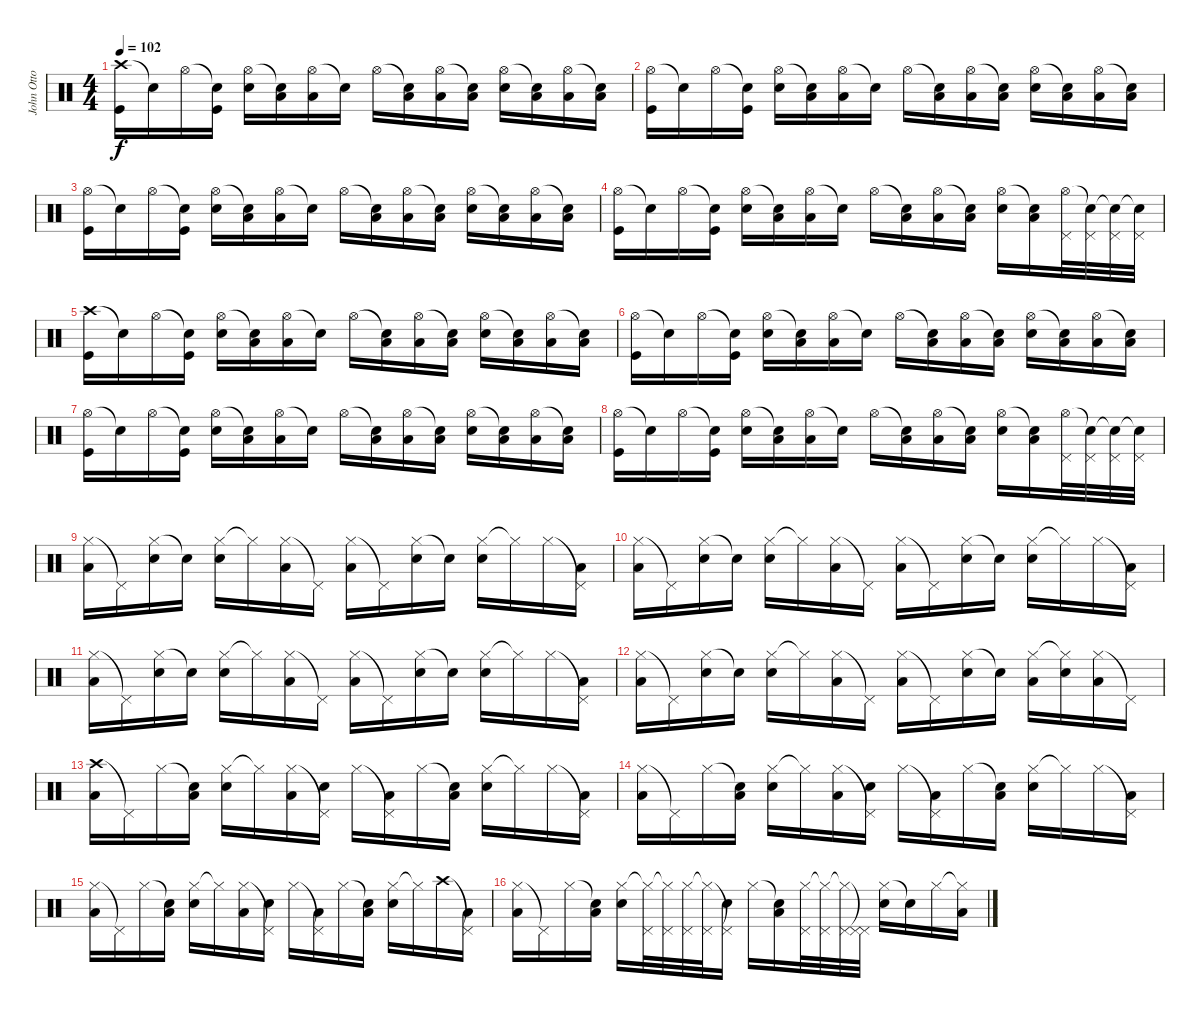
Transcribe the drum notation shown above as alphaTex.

\track ("John Otto (2nd Drums)" "John Otto ") {instrument percussion}
\staff {score}
\articulation defaults
\ts (4 4)
\tempo 102
\clef neutral
\ks c
("Crash high (hit)" "Kick (hit)").16{dy f} "Snare (hit)"{t}.16 "Hi-Hat (open)".16 ("Snare (hit)"{t} "Kick (hit)").16 ("Hi-Hat (open)" "Snare (hit) 2").16 ("Snare (hit)"{t} "Low Tom (hit)").16 ("Hi-Hat (open)" "Low Tom (hit)").16 "Snare (hit)"{t}.16 "Hi-Hat (open)".16 ("Snare (hit)"{t} "Low Tom (hit)").16 ("Hi-Hat (open)" "Low Tom (hit)").16 ("Snare (hit)"{t} "Low Tom (hit)").16 ("Hi-Hat (open)" "Snare (hit) 2").16 ("Snare (hit)"{t} "Low Tom (hit)").16 ("Hi-Hat (open)" "Low Tom (hit)").16 ("Snare (hit)"{t} "Low Tom (hit)").16 |
("Hi-Hat (open)" "Kick (hit)").16 "Snare (hit)"{t}.16 "Hi-Hat (open)".16 ("Snare (hit)"{t} "Kick (hit)").16 ("Hi-Hat (open)" "Snare (hit) 2").16 ("Snare (hit)"{t} "Low Tom (hit)").16 ("Hi-Hat (open)" "Low Tom (hit)").16 "Snare (hit)"{t}.16 "Hi-Hat (open)".16 ("Snare (hit)"{t} "Low Tom (hit)").16 ("Hi-Hat (open)" "Low Tom (hit)").16 ("Snare (hit)"{t} "Low Tom (hit)").16 ("Hi-Hat (open)" "Snare (hit) 2").16 ("Snare (hit)"{t} "Low Tom (hit)").16 ("Hi-Hat (open)" "Low Tom (hit)").16 ("Snare (hit)"{t} "Low Tom (hit)").16 |
("Hi-Hat (open)" "Kick (hit)").16 "Snare (hit)"{t}.16 "Hi-Hat (open)".16 ("Snare (hit)"{t} "Kick (hit)").16 ("Hi-Hat (open)" "Snare (hit) 2").16 ("Snare (hit)"{t} "Low Tom (hit)").16 ("Hi-Hat (open)" "Low Tom (hit)").16 "Snare (hit)"{t}.16 "Hi-Hat (open)".16 ("Snare (hit)"{t} "Low Tom (hit)").16 ("Hi-Hat (open)" "Low Tom (hit)").16 ("Snare (hit)"{t} "Low Tom (hit)").16 ("Hi-Hat (open)" "Snare (hit) 2").16 ("Snare (hit)"{t} "Low Tom (hit)").16 ("Hi-Hat (open)" "Low Tom (hit)").16 ("Snare (hit)"{t} "Low Tom (hit)").16 |
("Hi-Hat (open)" "Kick (hit)").16 "Snare (hit)"{t}.16 "Hi-Hat (open)".16 ("Snare (hit)"{t} "Kick (hit)").16 ("Hi-Hat (open)" "Snare (hit) 2").16 ("Snare (hit)"{t} "Low Tom (hit)").16 ("Hi-Hat (open)" "Low Tom (hit)").16 "Snare (hit)"{t}.16 "Hi-Hat (open)".16 ("Snare (hit)"{t} "Low Tom (hit)").16 ("Hi-Hat (open)" "Low Tom (hit)").16 ("Snare (hit)"{t} "Low Tom (hit)").16 ("Hi-Hat (open)" "Snare (hit) 2").16 ("Snare (hit)"{t} "Low Tom (hit)").16 ("Hi-Hat (open)" "Pedal Hi-Hat (hit)").32 ("Snare (hit)"{t} "Pedal Hi-Hat (hit)").32 ("Snare (hit)"{t} "Pedal Hi-Hat (hit)").32 ("Snare (hit)"{t} "Pedal Hi-Hat (hit)").32 |
("Crash high (hit)" "Kick (hit)").16 "Snare (hit)"{t}.16 "Hi-Hat (open)".16 ("Snare (hit)"{t} "Kick (hit)").16 ("Hi-Hat (open)" "Snare (hit) 2").16 ("Snare (hit)"{t} "Low Tom (hit)").16 ("Hi-Hat (open)" "Low Tom (hit)").16 "Snare (hit)"{t}.16 "Hi-Hat (open)".16 ("Snare (hit)"{t} "Low Tom (hit)").16 ("Hi-Hat (open)" "Low Tom (hit)").16 ("Snare (hit)"{t} "Low Tom (hit)").16 ("Hi-Hat (open)" "Snare (hit) 2").16 ("Snare (hit)"{t} "Low Tom (hit)").16 ("Hi-Hat (open)" "Low Tom (hit)").16 ("Snare (hit)"{t} "Low Tom (hit)").16 |
("Hi-Hat (open)" "Kick (hit)").16 "Snare (hit)"{t}.16 "Hi-Hat (open)".16 ("Snare (hit)"{t} "Kick (hit)").16 ("Hi-Hat (open)" "Snare (hit) 2").16 ("Snare (hit)"{t} "Low Tom (hit)").16 ("Hi-Hat (open)" "Low Tom (hit)").16 "Snare (hit)"{t}.16 "Hi-Hat (open)".16 ("Snare (hit)"{t} "Low Tom (hit)").16 ("Hi-Hat (open)" "Low Tom (hit)").16 ("Snare (hit)"{t} "Low Tom (hit)").16 ("Hi-Hat (open)" "Snare (hit) 2").16 ("Snare (hit)"{t} "Low Tom (hit)").16 ("Hi-Hat (open)" "Low Tom (hit)").16 ("Snare (hit)"{t} "Low Tom (hit)").16 |
("Hi-Hat (open)" "Kick (hit)").16 "Snare (hit)"{t}.16 "Hi-Hat (open)".16 ("Snare (hit)"{t} "Kick (hit)").16 ("Hi-Hat (open)" "Snare (hit) 2").16 ("Snare (hit)"{t} "Low Tom (hit)").16 ("Hi-Hat (open)" "Low Tom (hit)").16 "Snare (hit)"{t}.16 "Hi-Hat (open)".16 ("Snare (hit)"{t} "Low Tom (hit)").16 ("Hi-Hat (open)" "Low Tom (hit)").16 ("Snare (hit)"{t} "Low Tom (hit)").16 ("Hi-Hat (open)" "Snare (hit) 2").16 ("Snare (hit)"{t} "Low Tom (hit)").16 ("Hi-Hat (open)" "Low Tom (hit)").16 ("Snare (hit)"{t} "Low Tom (hit)").16 |
("Hi-Hat (open)" "Kick (hit)").16 "Snare (hit)"{t}.16 "Hi-Hat (open)".16 ("Snare (hit)"{t} "Kick (hit)").16 ("Hi-Hat (open)" "Snare (hit) 2").16 ("Snare (hit)"{t} "Low Tom (hit)").16 ("Hi-Hat (open)" "Low Tom (hit)").16 "Snare (hit)"{t}.16 "Hi-Hat (open)".16 ("Snare (hit)"{t} "Low Tom (hit)").16 ("Hi-Hat (open)" "Low Tom (hit)").16 ("Snare (hit)"{t} "Low Tom (hit)").16 ("Hi-Hat (open)" "Snare (hit) 2").16 ("Snare (hit)"{t} "Low Tom (hit)").16 ("Hi-Hat (open)" "Pedal Hi-Hat (hit)").32 ("Snare (hit)"{t} "Pedal Hi-Hat (hit)").32 ("Snare (hit)"{t} "Pedal Hi-Hat (hit)").32 ("Snare (hit)"{t} "Pedal Hi-Hat (hit)").32 |
("Hi-Hat (closed)" "Low Tom (hit)").16 "Pedal Hi-Hat (hit)"{t}.16 ("Hi-Hat (closed)" "Snare (hit) 2").16 "Snare (hit)"{t}.16 ("Hi-Hat (closed)" "Snare (hit) 2").16 "Hi-Hat (closed)"{t}.16 ("Hi-Hat (closed)" "Low Tom (hit)").16 "Pedal Hi-Hat (hit)"{t}.16 ("Hi-Hat (closed)" "Low Tom (hit)").16 "Pedal Hi-Hat (hit)"{t}.16 ("Hi-Hat (closed)" "Snare (hit) 2").16 "Snare (hit)"{t}.16 ("Hi-Hat (closed)" "Snare (hit) 2").16 "Hi-Hat (closed)"{t}.16 "Hi-Hat (closed)".16 ("Pedal Hi-Hat (hit)"{t} "Low Tom (hit)").16 |
("Hi-Hat (closed)" "Low Tom (hit)").16 "Pedal Hi-Hat (hit)"{t}.16 ("Hi-Hat (closed)" "Snare (hit) 2").16 "Snare (hit)"{t}.16 ("Hi-Hat (closed)" "Snare (hit) 2").16 "Hi-Hat (closed)"{t}.16 ("Hi-Hat (closed)" "Low Tom (hit)").16 "Pedal Hi-Hat (hit)"{t}.16 ("Hi-Hat (closed)" "Low Tom (hit)").16 "Pedal Hi-Hat (hit)"{t}.16 ("Hi-Hat (closed)" "Snare (hit) 2").16 "Snare (hit)"{t}.16 ("Hi-Hat (closed)" "Snare (hit) 2").16 "Hi-Hat (closed)"{t}.16 "Hi-Hat (closed)".16 ("Pedal Hi-Hat (hit)"{t} "Low Tom (hit)").16 |
("Hi-Hat (closed)" "Low Tom (hit)").16 "Pedal Hi-Hat (hit)"{t}.16 ("Hi-Hat (closed)" "Snare (hit) 2").16 "Snare (hit)"{t}.16 ("Hi-Hat (closed)" "Snare (hit) 2").16 "Hi-Hat (closed)"{t}.16 ("Hi-Hat (closed)" "Low Tom (hit)").16 "Pedal Hi-Hat (hit)"{t}.16 ("Hi-Hat (closed)" "Low Tom (hit)").16 "Pedal Hi-Hat (hit)"{t}.16 ("Hi-Hat (closed)" "Snare (hit) 2").16 "Snare (hit)"{t}.16 ("Hi-Hat (closed)" "Snare (hit) 2").16 "Hi-Hat (closed)"{t}.16 "Hi-Hat (closed)".16 ("Pedal Hi-Hat (hit)"{t} "Low Tom (hit)").16 |
("Hi-Hat (closed)" "Low Tom (hit)").16 "Pedal Hi-Hat (hit)"{t}.16 ("Hi-Hat (closed)" "Snare (hit) 2").16 "Snare (hit)"{t}.16 ("Hi-Hat (closed)" "Snare (hit) 2").16 "Hi-Hat (closed)"{t}.16 ("Hi-Hat (closed)" "Low Tom (hit)").16 "Pedal Hi-Hat (hit)"{t}.16 ("Hi-Hat (closed)" "Low Tom (hit)").16 "Pedal Hi-Hat (hit)"{t}.16 ("Hi-Hat (closed)" "Snare (hit) 2").16 "Snare (hit)"{t}.16 ("Hi-Hat (closed)" "Low Tom (hit)").16 ("Hi-Hat (closed)"{t} "Snare (hit) 2").16 ("Hi-Hat (closed)" "Low Tom (hit)").16 "Pedal Hi-Hat (hit)"{t}.16 |
("Crash high (hit)" "Low Tom (hit)").16 "Pedal Hi-Hat (hit)"{t}.16 "Hi-Hat (closed)".16 ("Snare (hit)"{t} "Low Tom (hit)").16 ("Hi-Hat (closed)" "Snare (hit) 2").16 "Hi-Hat (closed)"{t}.16 ("Hi-Hat (closed)" "Low Tom (hit)").16 ("Pedal Hi-Hat (hit)"{t} "Snare (hit) 2").16 "Hi-Hat (closed)".16 ("Pedal Hi-Hat (hit)"{t} "Low Tom (hit)").16 "Hi-Hat (closed)".16 ("Snare (hit)"{t} "Low Tom (hit)").16 ("Hi-Hat (closed)" "Snare (hit) 2").16 "Hi-Hat (closed)"{t}.16 "Hi-Hat (closed)".16 ("Pedal Hi-Hat (hit)"{t} "Low Tom (hit)").16 |
("Hi-Hat (closed)" "Low Tom (hit)").16 "Pedal Hi-Hat (hit)"{t}.16 "Hi-Hat (closed)".16 ("Snare (hit)"{t} "Low Tom (hit)").16 ("Hi-Hat (closed)" "Snare (hit) 2").16 "Hi-Hat (closed)"{t}.16 ("Hi-Hat (closed)" "Low Tom (hit)").16 ("Pedal Hi-Hat (hit)"{t} "Snare (hit) 2").16 "Hi-Hat (closed)".16 ("Pedal Hi-Hat (hit)"{t} "Low Tom (hit)").16 "Hi-Hat (closed)".16 ("Snare (hit)"{t} "Low Tom (hit)").16 ("Hi-Hat (closed)" "Snare (hit) 2").16 "Hi-Hat (closed)"{t}.16 "Hi-Hat (closed)".16 ("Pedal Hi-Hat (hit)"{t} "Low Tom (hit)").16 |
("Hi-Hat (closed)" "Low Tom (hit)").16 "Pedal Hi-Hat (hit)"{t}.16 "Hi-Hat (closed)".16 ("Snare (hit)"{t} "Low Tom (hit)").16 ("Hi-Hat (closed)" "Snare (hit) 2").16 "Hi-Hat (closed)"{t}.16 ("Hi-Hat (closed)" "Low Tom (hit)").16 ("Pedal Hi-Hat (hit)"{t} "Snare (hit) 2").16 "Hi-Hat (closed)".16 ("Pedal Hi-Hat (hit)"{t} "Low Tom (hit)").16 "Hi-Hat (closed)".16 ("Snare (hit)"{t} "Low Tom (hit)").16 ("Hi-Hat (closed)" "Snare (hit) 2").16 "Hi-Hat (closed)"{t}.16 "Crash high (hit)".16 ("Pedal Hi-Hat (hit)"{t} "Low Tom (hit)").16 |
("Hi-Hat (closed)" "Low Tom (hit)").16 "Pedal Hi-Hat (hit)"{t}.16 "Hi-Hat (closed)".16 ("Snare (hit)"{t} "Low Tom (hit)").16 ("Hi-Hat (closed)" "Snare (hit) 2").16 ("Hi-Hat (closed)"{t} "Pedal Hi-Hat (hit)").32 ("Hi-Hat (closed)"{t} "Pedal Hi-Hat (hit)").32 ("Hi-Hat (closed)" "Pedal Hi-Hat (hit)").32 ("Hi-Hat (closed)"{t} "Pedal Hi-Hat (hit)").32 ("Pedal Hi-Hat (hit)"{t} "Snare (hit) 2").16 "Hi-Hat (closed)".16 ("Snare (hit)"{t} "Low Tom (hit)").16 ("Hi-Hat (closed)" "Pedal Hi-Hat (hit)").32 ("Hi-Hat (closed)"{t} "Pedal Hi-Hat (hit)").32 ("Hi-Hat (closed)"{t} "Pedal Hi-Hat (hit)").32 ("Pedal Hi-Hat (hit)"{t} "Pedal Hi-Hat (hit)").32 ("Hi-Hat (closed)" "Snare (hit) 2").16 "Snare (hit)"{t}.16 "Hi-Hat (closed)".16 ("Hi-Hat (closed)"{t} "Low Tom (hit)").16
